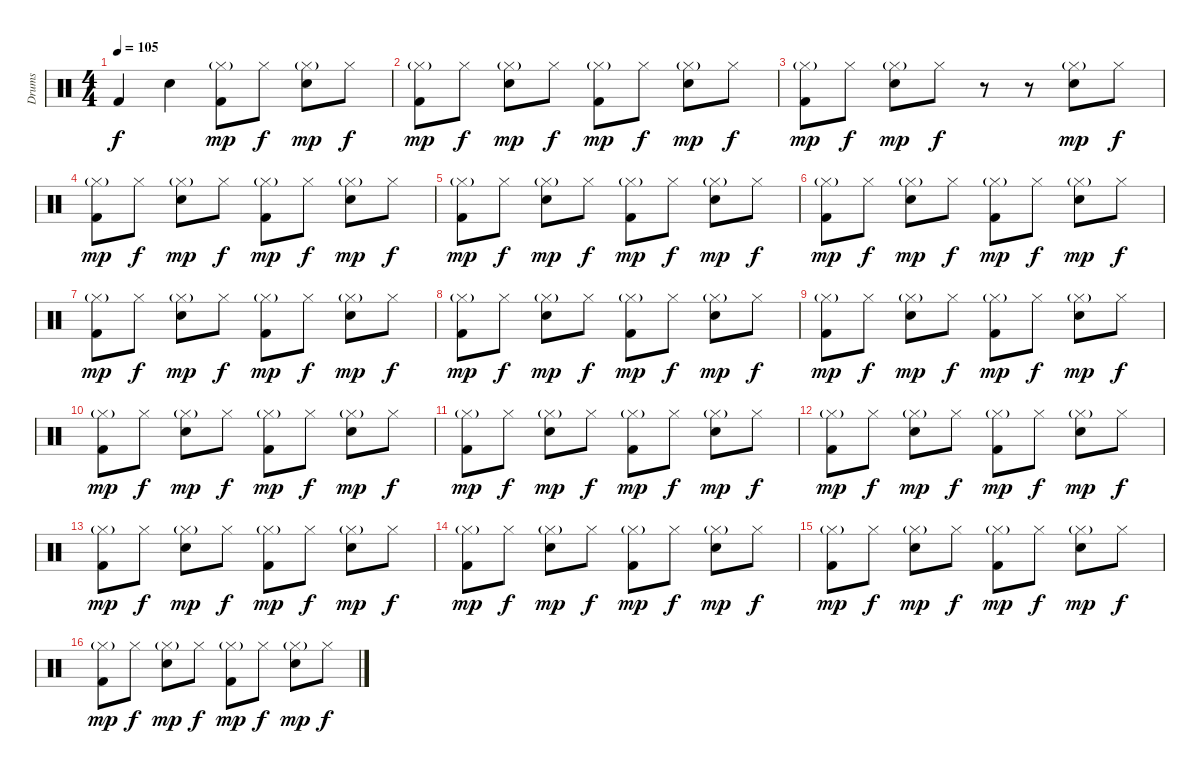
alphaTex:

\track ("Drums" "Drums") {instrument percussion}
\staff {score}
\articulation defaults
\ts (4 4)
\tempo 105
\clef neutral
\ks c "Kick (hit) 2".4{dy f} "Snare (hit) 2".4
("Hi-Hat (closed)"{g} "Kick (hit) 2").8{dy mp} "Hi-Hat (closed)".8{dy f} ("Hi-Hat (closed)"{g} "Snare (hit) 2").8{dy mp} "Hi-Hat (closed)".8{dy f} |
("Hi-Hat (closed)"{g} "Kick (hit) 2").8{dy mp} "Hi-Hat (closed)".8{dy f} ("Hi-Hat (closed)"{g} "Snare (hit) 2").8{dy mp} "Hi-Hat (closed)".8{dy f} ("Hi-Hat (closed)"{g} "Kick (hit) 2").8{dy mp} "Hi-Hat (closed)".8{dy f} ("Hi-Hat (closed)"{g} "Snare (hit) 2").8{dy mp} "Hi-Hat (closed)".8{dy f} |
("Hi-Hat (closed)"{g} "Kick (hit) 2").8{dy mp} "Hi-Hat (closed)".8{dy f} ("Hi-Hat (closed)"{g} "Snare (hit) 2").8{dy mp} "Hi-Hat (closed)".8{dy f} r.8 r.8 ("Hi-Hat (closed)"{g} "Snare (hit) 2").8{dy mp} "Hi-Hat (closed)".8{dy f} |
("Hi-Hat (closed)"{g} "Kick (hit) 2").8{dy mp} "Hi-Hat (closed)".8{dy f} ("Hi-Hat (closed)"{g} "Snare (hit) 2").8{dy mp} "Hi-Hat (closed)".8{dy f} ("Hi-Hat (closed)"{g} "Kick (hit) 2").8{dy mp} "Hi-Hat (closed)".8{dy f} ("Hi-Hat (closed)"{g} "Snare (hit) 2").8{dy mp} "Hi-Hat (closed)".8{dy f} |
("Hi-Hat (closed)"{g} "Kick (hit) 2").8{dy mp} "Hi-Hat (closed)".8{dy f} ("Hi-Hat (closed)"{g} "Snare (hit) 2").8{dy mp} "Hi-Hat (closed)".8{dy f} ("Hi-Hat (closed)"{g} "Kick (hit) 2").8{dy mp} "Hi-Hat (closed)".8{dy f} ("Hi-Hat (closed)"{g} "Snare (hit) 2").8{dy mp} "Hi-Hat (closed)".8{dy f} |
("Hi-Hat (closed)"{g} "Kick (hit) 2").8{dy mp} "Hi-Hat (closed)".8{dy f} ("Hi-Hat (closed)"{g} "Snare (hit) 2").8{dy mp} "Hi-Hat (closed)".8{dy f} ("Hi-Hat (closed)"{g} "Kick (hit) 2").8{dy mp} "Hi-Hat (closed)".8{dy f} ("Hi-Hat (closed)"{g} "Snare (hit) 2").8{dy mp} "Hi-Hat (closed)".8{dy f} |
("Hi-Hat (closed)"{g} "Kick (hit) 2").8{dy mp} "Hi-Hat (closed)".8{dy f} ("Hi-Hat (closed)"{g} "Snare (hit) 2").8{dy mp} "Hi-Hat (closed)".8{dy f} ("Hi-Hat (closed)"{g} "Kick (hit) 2").8{dy mp} "Hi-Hat (closed)".8{dy f} ("Hi-Hat (closed)"{g} "Snare (hit) 2").8{dy mp} "Hi-Hat (closed)".8{dy f} |
("Hi-Hat (closed)"{g} "Kick (hit) 2").8{dy mp} "Hi-Hat (closed)".8{dy f} ("Hi-Hat (closed)"{g} "Snare (hit) 2").8{dy mp} "Hi-Hat (closed)".8{dy f} ("Hi-Hat (closed)"{g} "Kick (hit) 2").8{dy mp} "Hi-Hat (closed)".8{dy f} ("Hi-Hat (closed)"{g} "Snare (hit) 2").8{dy mp} "Hi-Hat (closed)".8{dy f} |
("Hi-Hat (closed)"{g} "Kick (hit) 2").8{dy mp} "Hi-Hat (closed)".8{dy f} ("Hi-Hat (closed)"{g} "Snare (hit) 2").8{dy mp} "Hi-Hat (closed)".8{dy f} ("Hi-Hat (closed)"{g} "Kick (hit) 2").8{dy mp} "Hi-Hat (closed)".8{dy f} ("Hi-Hat (closed)"{g} "Snare (hit) 2").8{dy mp} "Hi-Hat (closed)".8{dy f} |
("Hi-Hat (closed)"{g} "Kick (hit) 2").8{dy mp} "Hi-Hat (closed)".8{dy f} ("Hi-Hat (closed)"{g} "Snare (hit) 2").8{dy mp} "Hi-Hat (closed)".8{dy f} ("Hi-Hat (closed)"{g} "Kick (hit) 2").8{dy mp} "Hi-Hat (closed)".8{dy f} ("Hi-Hat (closed)"{g} "Snare (hit) 2").8{dy mp} "Hi-Hat (closed)".8{dy f} |
("Hi-Hat (closed)"{g} "Kick (hit) 2").8{dy mp} "Hi-Hat (closed)".8{dy f} ("Hi-Hat (closed)"{g} "Snare (hit) 2").8{dy mp} "Hi-Hat (closed)".8{dy f} ("Hi-Hat (closed)"{g} "Kick (hit) 2").8{dy mp} "Hi-Hat (closed)".8{dy f} ("Hi-Hat (closed)"{g} "Snare (hit) 2").8{dy mp} "Hi-Hat (closed)".8{dy f} |
("Hi-Hat (closed)"{g} "Kick (hit) 2").8{dy mp} "Hi-Hat (closed)".8{dy f} ("Hi-Hat (closed)"{g} "Snare (hit) 2").8{dy mp} "Hi-Hat (closed)".8{dy f} ("Hi-Hat (closed)"{g} "Kick (hit) 2").8{dy mp} "Hi-Hat (closed)".8{dy f} ("Hi-Hat (closed)"{g} "Snare (hit) 2").8{dy mp} "Hi-Hat (closed)".8{dy f} |
("Hi-Hat (closed)"{g} "Kick (hit) 2").8{dy mp} "Hi-Hat (closed)".8{dy f} ("Hi-Hat (closed)"{g} "Snare (hit) 2").8{dy mp} "Hi-Hat (closed)".8{dy f} ("Hi-Hat (closed)"{g} "Kick (hit) 2").8{dy mp} "Hi-Hat (closed)".8{dy f} ("Hi-Hat (closed)"{g} "Snare (hit) 2").8{dy mp} "Hi-Hat (closed)".8{dy f} |
("Hi-Hat (closed)"{g} "Kick (hit) 2").8{dy mp} "Hi-Hat (closed)".8{dy f} ("Hi-Hat (closed)"{g} "Snare (hit) 2").8{dy mp} "Hi-Hat (closed)".8{dy f} ("Hi-Hat (closed)"{g} "Kick (hit) 2").8{dy mp} "Hi-Hat (closed)".8{dy f} ("Hi-Hat (closed)"{g} "Snare (hit) 2").8{dy mp} "Hi-Hat (closed)".8{dy f} |
("Hi-Hat (closed)"{g} "Kick (hit) 2").8{dy mp} "Hi-Hat (closed)".8{dy f} ("Hi-Hat (closed)"{g} "Snare (hit) 2").8{dy mp} "Hi-Hat (closed)".8{dy f} ("Hi-Hat (closed)"{g} "Kick (hit) 2").8{dy mp} "Hi-Hat (closed)".8{dy f} ("Hi-Hat (closed)"{g} "Snare (hit) 2").8{dy mp} "Hi-Hat (closed)".8{dy f} |
("Hi-Hat (closed)"{g} "Kick (hit) 2").8{dy mp} "Hi-Hat (closed)".8{dy f} ("Hi-Hat (closed)"{g} "Snare (hit) 2").8{dy mp} "Hi-Hat (closed)".8{dy f} ("Hi-Hat (closed)"{g} "Kick (hit) 2").8{dy mp} "Hi-Hat (closed)".8{dy f} ("Hi-Hat (closed)"{g} "Snare (hit) 2").8{dy mp} "Hi-Hat (closed)".8{dy f}
